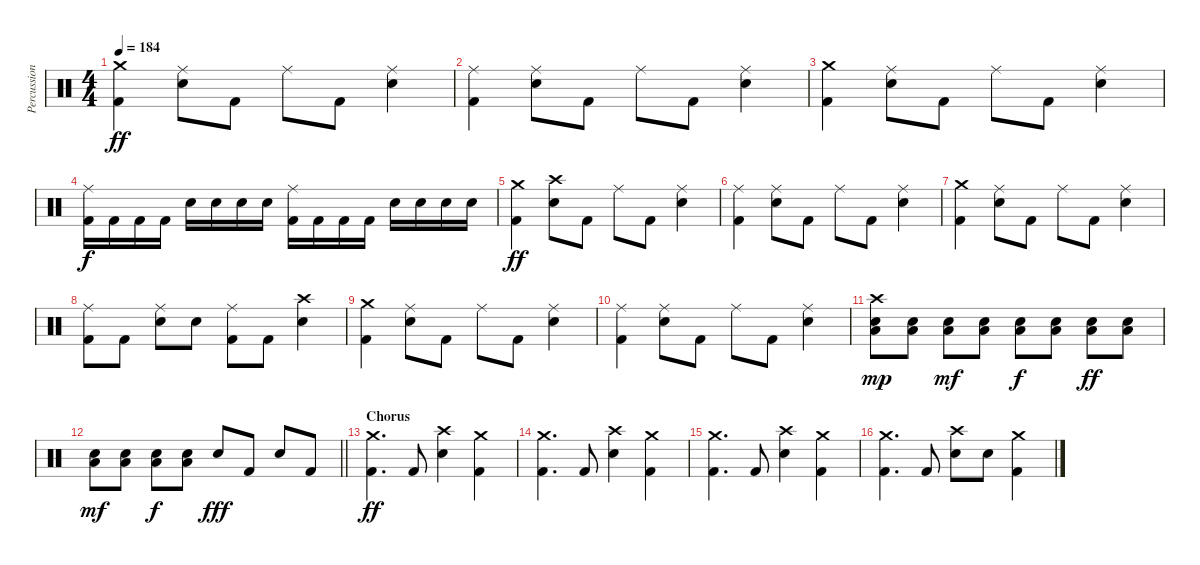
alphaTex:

\track ("Percussion" "Percussion") {instrument percussion}
\staff {score}
\articulation defaults
\ts (4 4)
\tempo 184
\clef neutral
\ks c
("Crash medium (hit)" "Kick (hit) 2").4{dy ff} ("Ride (middle)" "Electric Snare (hit)").8 "Kick (hit) 2".8 "Ride (middle)".8 "Kick (hit) 2".8 ("Ride (middle)" "Electric Snare (hit)").4 |
("Ride (middle)" "Kick (hit) 2").4 ("Ride (middle)" "Electric Snare (hit)").8 "Kick (hit) 2".8 "Ride (middle)".8 "Kick (hit) 2".8 ("Ride (middle)" "Electric Snare (hit)").4 |
("Crash medium (hit)" "Kick (hit) 2").4 ("Ride (middle)" "Electric Snare (hit)").8 "Kick (hit) 2".8 "Ride (middle)".8 "Kick (hit) 2".8 ("Ride (middle)" "Electric Snare (hit)").4 |
("Ride (middle)" "Kick (hit) 2").16{dy f} "Kick (hit) 2".16 "Kick (hit) 2".16 "Kick (hit) 2".16 "Electric Snare (hit)".16 "Electric Snare (hit)".16 "Electric Snare (hit)".16 "Electric Snare (hit)".16 ("Ride (middle)" "Kick (hit) 2").16 "Kick (hit) 2".16 "Kick (hit) 2".16 "Kick (hit) 2".16 "Electric Snare (hit)".16 "Electric Snare (hit)".16 "Electric Snare (hit)".16 "Electric Snare (hit)".16 |
("Crash medium (hit)" "Kick (hit) 2").4{dy ff} ("Crash high (hit)" "Electric Snare (hit)").8 "Kick (hit) 2".8 "Ride (middle)".8 "Kick (hit) 2".8 ("Ride (middle)" "Electric Snare (hit)").4 |
("Ride (middle)" "Kick (hit) 2").4 ("Ride (middle)" "Electric Snare (hit)").8 "Kick (hit) 2".8 "Ride (middle)".8 "Kick (hit) 2".8 ("Ride (middle)" "Electric Snare (hit)").4 |
("Crash medium (hit)" "Kick (hit) 2").4 ("Ride (middle)" "Electric Snare (hit)").8 "Kick (hit) 2".8 "Ride (middle)".8 "Kick (hit) 2".8 ("Ride (middle)" "Electric Snare (hit)").4 |
("Ride (middle)" "Kick (hit) 2").8 "Kick (hit) 2".8 ("Ride (middle)" "Electric Snare (hit)").8 "Electric Snare (hit)".8 ("Ride (middle)" "Kick (hit) 2").8 "Kick (hit) 2".8 ("Crash high (hit)" "Electric Snare (hit)").4 |
("Crash medium (hit)" "Kick (hit) 2").4 ("Ride (middle)" "Electric Snare (hit)").8 "Kick (hit) 2".8 "Ride (middle)".8 "Kick (hit) 2".8 ("Ride (middle)" "Electric Snare (hit)").4 |
("Ride (middle)" "Kick (hit) 2").4 ("Ride (middle)" "Electric Snare (hit)").8 "Kick (hit) 2".8 "Ride (middle)".8 "Kick (hit) 2".8 ("Ride (middle)" "Electric Snare (hit)").4 |
("Crash high (hit)" "Electric Snare (hit)" "Low Tom (hit)").8{dy mp} ("Electric Snare (hit)" "Low Tom (hit)").8 ("Electric Snare (hit)" "Low Tom (hit)").8{dy mf} ("Electric Snare (hit)" "Low Tom (hit)").8 ("Electric Snare (hit)" "Low Tom (hit)").8{dy f} ("Electric Snare (hit)" "Low Tom (hit)").8 ("Electric Snare (hit)" "Low Tom (hit)").8{dy ff} ("Electric Snare (hit)" "Low Tom (hit)").8 |
\barLineRight lightlight
("Electric Snare (hit)" "Low Tom (hit)").8{dy mf} ("Electric Snare (hit)" "Low Tom (hit)").8 ("Electric Snare (hit)" "Low Tom (hit)").8{dy f} ("Electric Snare (hit)" "Low Tom (hit)").8 "Electric Snare (hit)".8{dy fff} "Kick (hit) 2".8 "Electric Snare (hit)".8 "Kick (hit) 2".8 |
\section ("" "Chorus")
("Crash medium (hit)" "Kick (hit) 2").4{d dy ff} "Kick (hit) 2".8 ("Crash high (hit)" "Electric Snare (hit)").4 ("Crash medium (hit)" "Kick (hit) 2").4 |
("Crash medium (hit)" "Kick (hit) 2").4{d} "Kick (hit) 2".8 ("Crash high (hit)" "Electric Snare (hit)").4 ("Crash medium (hit)" "Kick (hit) 2").4 |
("Crash medium (hit)" "Kick (hit) 2").4{d} "Kick (hit) 2".8 ("Crash high (hit)" "Electric Snare (hit)").4 ("Crash medium (hit)" "Kick (hit) 2").4 |
("Crash medium (hit)" "Kick (hit) 2").4{d} "Kick (hit) 2".8 ("Crash high (hit)" "Electric Snare (hit)").8 "Electric Snare (hit)".8 ("Crash medium (hit)" "Kick (hit) 2").4
